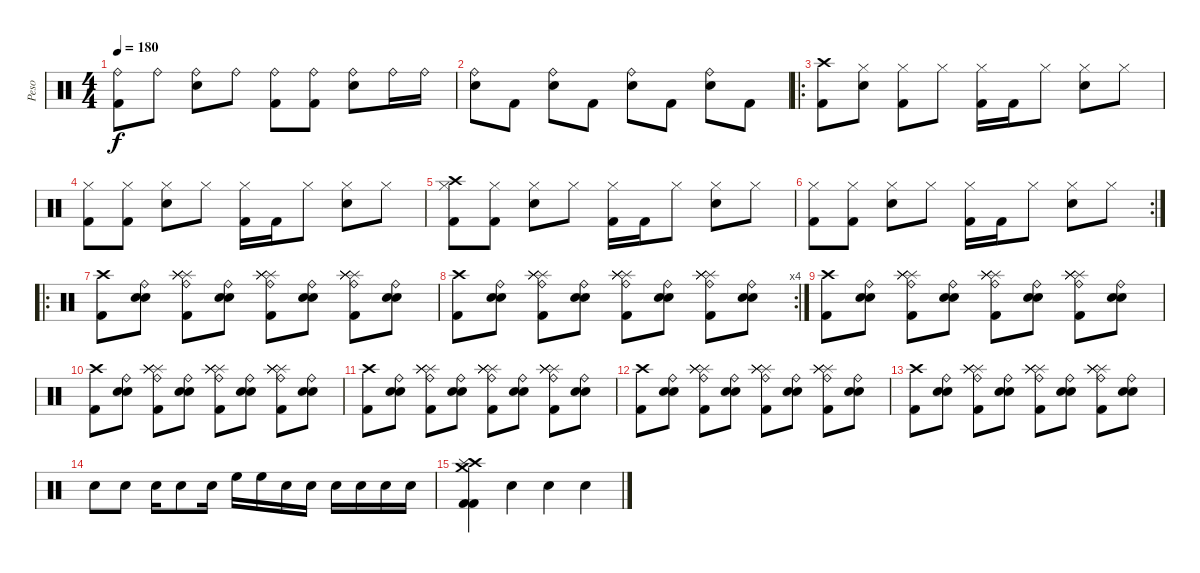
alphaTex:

\track ("Peso" "Peso") {instrument percussion}
\staff {score}
\articulation defaults
\ts (4 4)
\tempo 180
\clef neutral
\ks c
("Ride (bell)" "Kick (hit) 2").8{dy f} "Ride (bell)".8 ("Ride (bell)" "Snare (hit) 2").8 "Ride (bell)".8 ("Ride (bell)" "Kick (hit) 2").8 ("Ride (bell)" "Kick (hit) 2").8 ("Ride (bell)" "Snare (hit) 2").8 "Ride (bell)".16 "Ride (bell)".16 |
("Ride (bell)" "Snare (hit) 2").8 "Kick (hit) 2".8 ("Ride (bell)" "Snare (hit) 2").8 "Kick (hit) 2".8 ("Ride (bell)" "Snare (hit) 2").8 "Kick (hit) 2".8 ("Ride (bell)" "Snare (hit) 2").8 "Kick (hit) 2".8 |
\ro
("Crash high (hit)" "Kick (hit) 2").8 ("Hi-Hat (closed)" "Snare (hit) 2").8 ("Hi-Hat (closed)" "Kick (hit) 2").8 "Hi-Hat (closed)".8 ("Hi-Hat (closed)" "Kick (hit) 2").16 "Kick (hit) 2".16 "Hi-Hat (closed)".8 ("Hi-Hat (closed)" "Snare (hit) 2").8 "Hi-Hat (closed)".8 |
("Hi-Hat (closed)" "Kick (hit) 2").8 ("Hi-Hat (closed)" "Kick (hit) 2").8 ("Hi-Hat (closed)" "Snare (hit) 2").8 "Hi-Hat (closed)".8 ("Hi-Hat (closed)" "Kick (hit) 2").16 "Kick (hit) 2".16 "Hi-Hat (closed)".8 ("Hi-Hat (closed)" "Snare (hit) 2").8 "Hi-Hat (closed)".8 |
("Crash high (hit)" "Hi-Hat (closed)" "Kick (hit) 2").8 ("Hi-Hat (closed)" "Kick (hit) 2").8 ("Hi-Hat (closed)" "Snare (hit) 2").8 "Hi-Hat (closed)".8 ("Hi-Hat (closed)" "Kick (hit) 2").16 "Kick (hit) 2".16 "Hi-Hat (closed)".8 ("Hi-Hat (closed)" "Snare (hit) 2").8 "Hi-Hat (closed)".8 |
\rc 2
("Hi-Hat (closed)" "Kick (hit) 2").8 ("Hi-Hat (closed)" "Kick (hit) 2").8 ("Hi-Hat (closed)" "Snare (hit) 2").8 "Hi-Hat (closed)".8 ("Hi-Hat (closed)" "Kick (hit) 2").16 "Kick (hit) 2".16 "Hi-Hat (closed)".8 ("Hi-Hat (closed)" "Snare (hit) 2").8 "Hi-Hat (closed)".8 |
\ro
("Crash high (hit)" "Kick (hit) 2").8 ("Ride (bell)" "Snare (hit)"{x} "Snare (hit) 2").8 ("Splash (hit)" "Ride (bell)" "Splash (hit)" "Splash (hit)" "Splash (hit)" "Kick (hit) 2").8 ("Ride (bell)" "Snare (hit)"{x} "Snare (hit) 2").8 ("Splash (hit)" "Ride (bell)" "Splash (hit)" "Splash (hit)" "Splash (hit)" "Kick (hit) 2").8 ("Ride (bell)" "Snare (hit)"{x} "Snare (hit) 2").8 ("Splash (hit)" "Ride (bell)" "Splash (hit)" "Splash (hit)" "Splash (hit)" "Kick (hit) 2").8 ("Ride (bell)" "Snare (hit)"{x} "Snare (hit) 2").8 |
\rc 4
("Crash high (hit)" "Kick (hit) 2").8 ("Ride (bell)" "Snare (hit)"{x} "Snare (hit) 2").8 ("Splash (hit)" "Ride (bell)" "Splash (hit)" "Splash (hit)" "Splash (hit)" "Kick (hit) 2").8 ("Ride (bell)" "Snare (hit)"{x} "Snare (hit) 2").8 ("Splash (hit)" "Ride (bell)" "Splash (hit)" "Splash (hit)" "Splash (hit)" "Kick (hit) 2").8 ("Ride (bell)" "Snare (hit)"{x} "Snare (hit) 2").8 ("Splash (hit)" "Ride (bell)" "Splash (hit)" "Splash (hit)" "Splash (hit)" "Kick (hit) 2").8 ("Ride (bell)" "Snare (hit)"{x} "Snare (hit) 2").8 |
("Crash high (hit)" "Kick (hit) 2").8 ("Ride (bell)" "Snare (hit)"{x} "Snare (hit) 2").8 ("Splash (hit)" "Ride (bell)" "Splash (hit)" "Splash (hit)" "Splash (hit)" "Kick (hit) 2").8 ("Ride (bell)" "Snare (hit)"{x} "Snare (hit) 2").8 ("Splash (hit)" "Ride (bell)" "Splash (hit)" "Splash (hit)" "Splash (hit)" "Kick (hit) 2").8 ("Ride (bell)" "Snare (hit)"{x} "Snare (hit) 2").8 ("Splash (hit)" "Ride (bell)" "Splash (hit)" "Splash (hit)" "Splash (hit)" "Kick (hit) 2").8 ("Ride (bell)" "Snare (hit)"{x} "Snare (hit) 2").8 |
("Crash high (hit)" "Kick (hit) 2").8 ("Ride (bell)" "Snare (hit)"{x} "Snare (hit) 2").8 ("Splash (hit)" "Ride (bell)" "Splash (hit)" "Splash (hit)" "Splash (hit)" "Kick (hit) 2").8 ("Ride (bell)" "Snare (hit)"{x} "Snare (hit) 2").8 ("Splash (hit)" "Ride (bell)" "Splash (hit)" "Splash (hit)" "Splash (hit)" "Kick (hit) 2").8 ("Ride (bell)" "Snare (hit)"{x} "Snare (hit) 2").8 ("Splash (hit)" "Ride (bell)" "Splash (hit)" "Splash (hit)" "Splash (hit)" "Kick (hit) 2").8 ("Ride (bell)" "Snare (hit)"{x} "Snare (hit) 2").8 |
("Crash high (hit)" "Kick (hit) 2").8 ("Ride (bell)" "Snare (hit)"{x} "Snare (hit) 2").8 ("Splash (hit)" "Ride (bell)" "Splash (hit)" "Splash (hit)" "Splash (hit)" "Kick (hit) 2").8 ("Ride (bell)" "Snare (hit)"{x} "Snare (hit) 2").8 ("Splash (hit)" "Ride (bell)" "Splash (hit)" "Splash (hit)" "Splash (hit)" "Kick (hit) 2").8 ("Ride (bell)" "Snare (hit)"{x} "Snare (hit) 2").8 ("Splash (hit)" "Ride (bell)" "Splash (hit)" "Splash (hit)" "Splash (hit)" "Kick (hit) 2").8 ("Ride (bell)" "Snare (hit)"{x} "Snare (hit) 2").8 |
("Crash high (hit)" "Kick (hit) 2").8 ("Ride (bell)" "Snare (hit)"{x} "Snare (hit) 2").8 ("Splash (hit)" "Ride (bell)" "Splash (hit)" "Splash (hit)" "Splash (hit)" "Kick (hit) 2").8 ("Ride (bell)" "Snare (hit)"{x} "Snare (hit) 2").8 ("Splash (hit)" "Ride (bell)" "Splash (hit)" "Splash (hit)" "Splash (hit)" "Kick (hit) 2").8 ("Ride (bell)" "Snare (hit)"{x} "Snare (hit) 2").8 ("Splash (hit)" "Ride (bell)" "Splash (hit)" "Splash (hit)" "Splash (hit)" "Kick (hit) 2").8 ("Ride (bell)" "Snare (hit)"{x} "Snare (hit) 2").8 |
("Crash high (hit)" "Kick (hit) 2").8 ("Ride (bell)" "Snare (hit)"{x} "Snare (hit) 2").8 ("Splash (hit)" "Ride (bell)" "Splash (hit)" "Splash (hit)" "Splash (hit)" "Kick (hit) 2").8 ("Ride (bell)" "Snare (hit)"{x} "Snare (hit) 2").8 ("Splash (hit)" "Ride (bell)" "Splash (hit)" "Splash (hit)" "Splash (hit)" "Kick (hit) 2").8 ("Ride (bell)" "Snare (hit)"{x} "Snare (hit) 2").8 ("Splash (hit)" "Ride (bell)" "Splash (hit)" "Splash (hit)" "Splash (hit)" "Kick (hit) 2").8 ("Ride (bell)" "Snare (hit)"{x} "Snare (hit) 2").8 |
"Snare (hit) 2".8 "Snare (hit) 2".8 "Snare (hit) 2".16 "Snare (hit) 2".8 "Snare (hit) 2".16 "High Floor Tom (hit)".16 "High Floor Tom (hit)".16 "Snare (hit) 2".16 "Snare (hit) 2".16 "Snare (hit) 2".16 "Snare (hit) 2".16 "Snare (hit) 2".16 "Snare (hit) 2".16 |
("Crash high (hit)" "Splash (hit)" "Crash medium (hit)" "Kick (hit) 2" "Kick (hit) 2").4 "Snare (hit)"{x}.4 "Snare (hit)"{x}.4 "Snare (hit)"{x}.4
